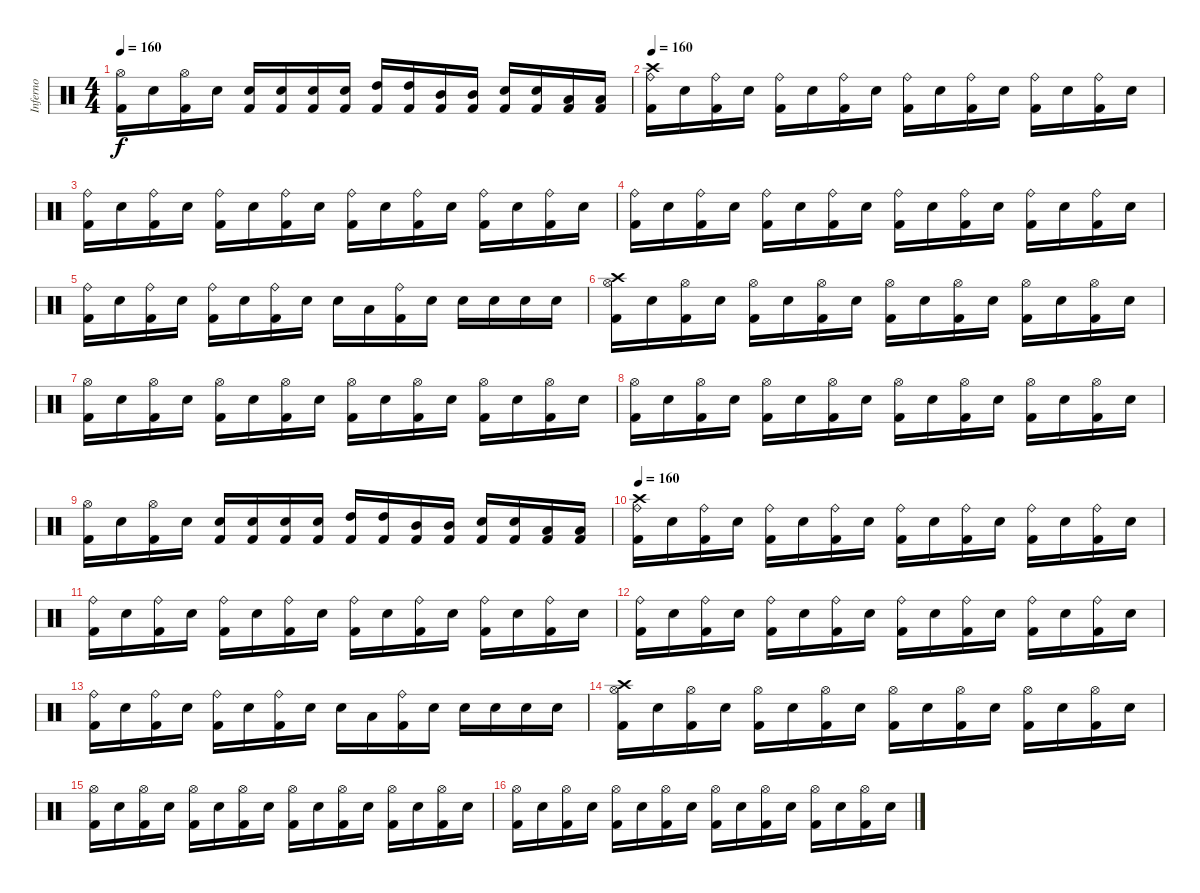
\track ("Inferno" "Inferno") {instrument percussion}
\staff {score}
\articulation defaults
\ts (4 4)
\tempo 160
\clef neutral
\ks c
("Hi-Hat (open)" "Kick (hit) 2").16{dy f} "Electric Snare (hit)".16 ("Hi-Hat (open)" "Kick (hit) 2").16 "Electric Snare (hit)".16 ("Electric Snare (hit)" "Kick (hit) 2").16 ("Electric Snare (hit)" "Kick (hit) 2").16 ("Electric Snare (hit)" "Kick (hit) 2").16 ("Electric Snare (hit)" "Kick (hit) 2").16 ("High Tom (hit)" "Kick (hit) 2").16 ("High Tom (hit)" "Kick (hit) 2").16 ("Mid Tom (hit)" "Kick (hit) 2").16 ("Mid Tom (hit)" "Kick (hit) 2").16 ("Electric Snare (hit)" "Kick (hit) 2").16 ("Electric Snare (hit)" "Kick (hit) 2").16 ("Low Tom (hit)" "Kick (hit) 2").16 ("Low Tom (hit)" "Kick (hit) 2").16 |
\tempo 160
("Crash high (hit)" "Ride (bell)" "Kick (hit) 2").16 "Electric Snare (hit)".16 ("Ride (bell)" "Kick (hit) 2").16 "Electric Snare (hit)".16 ("Ride (bell)" "Kick (hit) 2").16 "Electric Snare (hit)".16 ("Ride (bell)" "Kick (hit) 2").16 "Electric Snare (hit)".16 ("Ride (bell)" "Kick (hit) 2").16 "Electric Snare (hit)".16 ("Ride (bell)" "Kick (hit) 2").16 "Electric Snare (hit)".16 ("Ride (bell)" "Kick (hit) 2").16 "Electric Snare (hit)".16 ("Ride (bell)" "Kick (hit) 2").16 "Electric Snare (hit)".16 |
("Ride (bell)" "Kick (hit) 2").16 "Electric Snare (hit)".16 ("Ride (bell)" "Kick (hit) 2").16 "Electric Snare (hit)".16 ("Ride (bell)" "Kick (hit) 2").16 "Electric Snare (hit)".16 ("Ride (bell)" "Kick (hit) 2").16 "Electric Snare (hit)".16 ("Ride (bell)" "Kick (hit) 2").16 "Electric Snare (hit)".16 ("Ride (bell)" "Kick (hit) 2").16 "Electric Snare (hit)".16 ("Ride (bell)" "Kick (hit) 2").16 "Electric Snare (hit)".16 ("Ride (bell)" "Kick (hit) 2").16 "Electric Snare (hit)".16 |
("Ride (bell)" "Kick (hit) 2").16 "Electric Snare (hit)".16 ("Ride (bell)" "Kick (hit) 2").16 "Electric Snare (hit)".16 ("Ride (bell)" "Kick (hit) 2").16 "Electric Snare (hit)".16 ("Ride (bell)" "Kick (hit) 2").16 "Electric Snare (hit)".16 ("Ride (bell)" "Kick (hit) 2").16 "Electric Snare (hit)".16 ("Ride (bell)" "Kick (hit) 2").16 "Electric Snare (hit)".16 ("Ride (bell)" "Kick (hit) 2").16 "Electric Snare (hit)".16 ("Ride (bell)" "Kick (hit) 2").16 "Electric Snare (hit)".16 |
("Ride (bell)" "Kick (hit) 2").16 "Electric Snare (hit)".16 ("Ride (bell)" "Kick (hit) 2").16 "Electric Snare (hit)".16 ("Ride (bell)" "Kick (hit) 2").16 "Electric Snare (hit)".16 ("Ride (bell)" "Kick (hit) 2").16 "Electric Snare (hit)".16 "Electric Snare (hit)".16 "Low Tom (hit)".16 ("Ride (bell)" "Kick (hit) 2").16 "Electric Snare (hit)".16 "Electric Snare (hit)".16 "Electric Snare (hit)".16 "Electric Snare (hit)".16 "Electric Snare (hit)".16 |
("Crash high (hit)" "Hi-Hat (open)" "Kick (hit) 2").16 "Electric Snare (hit)".16 ("Hi-Hat (open)" "Kick (hit) 2").16 "Electric Snare (hit)".16 ("Hi-Hat (open)" "Kick (hit) 2").16 "Electric Snare (hit)".16 ("Hi-Hat (open)" "Kick (hit) 2").16 "Electric Snare (hit)".16 ("Hi-Hat (open)" "Kick (hit) 2").16 "Electric Snare (hit)".16 ("Hi-Hat (open)" "Kick (hit) 2").16 "Electric Snare (hit)".16 ("Hi-Hat (open)" "Kick (hit) 2").16 "Electric Snare (hit)".16 ("Hi-Hat (open)" "Kick (hit) 2").16 "Electric Snare (hit)".16 |
("Hi-Hat (open)" "Kick (hit) 2").16 "Electric Snare (hit)".16 ("Hi-Hat (open)" "Kick (hit) 2").16 "Electric Snare (hit)".16 ("Hi-Hat (open)" "Kick (hit) 2").16 "Electric Snare (hit)".16 ("Hi-Hat (open)" "Kick (hit) 2").16 "Electric Snare (hit)".16 ("Hi-Hat (open)" "Kick (hit) 2").16 "Electric Snare (hit)".16 ("Hi-Hat (open)" "Kick (hit) 2").16 "Electric Snare (hit)".16 ("Hi-Hat (open)" "Kick (hit) 2").16 "Electric Snare (hit)".16 ("Hi-Hat (open)" "Kick (hit) 2").16 "Electric Snare (hit)".16 |
("Hi-Hat (open)" "Kick (hit) 2").16 "Electric Snare (hit)".16 ("Hi-Hat (open)" "Kick (hit) 2").16 "Electric Snare (hit)".16 ("Hi-Hat (open)" "Kick (hit) 2").16 "Electric Snare (hit)".16 ("Hi-Hat (open)" "Kick (hit) 2").16 "Electric Snare (hit)".16 ("Hi-Hat (open)" "Kick (hit) 2").16 "Electric Snare (hit)".16 ("Hi-Hat (open)" "Kick (hit) 2").16 "Electric Snare (hit)".16 ("Hi-Hat (open)" "Kick (hit) 2").16 "Electric Snare (hit)".16 ("Hi-Hat (open)" "Kick (hit) 2").16 "Electric Snare (hit)".16 |
("Hi-Hat (open)" "Kick (hit) 2").16 "Electric Snare (hit)".16 ("Hi-Hat (open)" "Kick (hit) 2").16 "Electric Snare (hit)".16 ("Electric Snare (hit)" "Kick (hit) 2").16 ("Electric Snare (hit)" "Kick (hit) 2").16 ("Electric Snare (hit)" "Kick (hit) 2").16 ("Electric Snare (hit)" "Kick (hit) 2").16 ("High Tom (hit)" "Kick (hit) 2").16 ("High Tom (hit)" "Kick (hit) 2").16 ("Mid Tom (hit)" "Kick (hit) 2").16 ("Mid Tom (hit)" "Kick (hit) 2").16 ("Electric Snare (hit)" "Kick (hit) 2").16 ("Electric Snare (hit)" "Kick (hit) 2").16 ("Low Tom (hit)" "Kick (hit) 2").16 ("Low Tom (hit)" "Kick (hit) 2").16 |
\tempo 160
("Crash high (hit)" "Ride (bell)" "Kick (hit) 2").16 "Electric Snare (hit)".16 ("Ride (bell)" "Kick (hit) 2").16 "Electric Snare (hit)".16 ("Ride (bell)" "Kick (hit) 2").16 "Electric Snare (hit)".16 ("Ride (bell)" "Kick (hit) 2").16 "Electric Snare (hit)".16 ("Ride (bell)" "Kick (hit) 2").16 "Electric Snare (hit)".16 ("Ride (bell)" "Kick (hit) 2").16 "Electric Snare (hit)".16 ("Ride (bell)" "Kick (hit) 2").16 "Electric Snare (hit)".16 ("Ride (bell)" "Kick (hit) 2").16 "Electric Snare (hit)".16 |
("Ride (bell)" "Kick (hit) 2").16 "Electric Snare (hit)".16 ("Ride (bell)" "Kick (hit) 2").16 "Electric Snare (hit)".16 ("Ride (bell)" "Kick (hit) 2").16 "Electric Snare (hit)".16 ("Ride (bell)" "Kick (hit) 2").16 "Electric Snare (hit)".16 ("Ride (bell)" "Kick (hit) 2").16 "Electric Snare (hit)".16 ("Ride (bell)" "Kick (hit) 2").16 "Electric Snare (hit)".16 ("Ride (bell)" "Kick (hit) 2").16 "Electric Snare (hit)".16 ("Ride (bell)" "Kick (hit) 2").16 "Electric Snare (hit)".16 |
("Ride (bell)" "Kick (hit) 2").16 "Electric Snare (hit)".16 ("Ride (bell)" "Kick (hit) 2").16 "Electric Snare (hit)".16 ("Ride (bell)" "Kick (hit) 2").16 "Electric Snare (hit)".16 ("Ride (bell)" "Kick (hit) 2").16 "Electric Snare (hit)".16 ("Ride (bell)" "Kick (hit) 2").16 "Electric Snare (hit)".16 ("Ride (bell)" "Kick (hit) 2").16 "Electric Snare (hit)".16 ("Ride (bell)" "Kick (hit) 2").16 "Electric Snare (hit)".16 ("Ride (bell)" "Kick (hit) 2").16 "Electric Snare (hit)".16 |
("Ride (bell)" "Kick (hit) 2").16 "Electric Snare (hit)".16 ("Ride (bell)" "Kick (hit) 2").16 "Electric Snare (hit)".16 ("Ride (bell)" "Kick (hit) 2").16 "Electric Snare (hit)".16 ("Ride (bell)" "Kick (hit) 2").16 "Electric Snare (hit)".16 "Electric Snare (hit)".16 "Low Tom (hit)".16 ("Ride (bell)" "Kick (hit) 2").16 "Electric Snare (hit)".16 "Electric Snare (hit)".16 "Electric Snare (hit)".16 "Electric Snare (hit)".16 "Electric Snare (hit)".16 |
("Crash high (hit)" "Hi-Hat (open)" "Kick (hit) 2").16 "Electric Snare (hit)".16 ("Hi-Hat (open)" "Kick (hit) 2").16 "Electric Snare (hit)".16 ("Hi-Hat (open)" "Kick (hit) 2").16 "Electric Snare (hit)".16 ("Hi-Hat (open)" "Kick (hit) 2").16 "Electric Snare (hit)".16 ("Hi-Hat (open)" "Kick (hit) 2").16 "Electric Snare (hit)".16 ("Hi-Hat (open)" "Kick (hit) 2").16 "Electric Snare (hit)".16 ("Hi-Hat (open)" "Kick (hit) 2").16 "Electric Snare (hit)".16 ("Hi-Hat (open)" "Kick (hit) 2").16 "Electric Snare (hit)".16 |
("Hi-Hat (open)" "Kick (hit) 2").16 "Electric Snare (hit)".16 ("Hi-Hat (open)" "Kick (hit) 2").16 "Electric Snare (hit)".16 ("Hi-Hat (open)" "Kick (hit) 2").16 "Electric Snare (hit)".16 ("Hi-Hat (open)" "Kick (hit) 2").16 "Electric Snare (hit)".16 ("Hi-Hat (open)" "Kick (hit) 2").16 "Electric Snare (hit)".16 ("Hi-Hat (open)" "Kick (hit) 2").16 "Electric Snare (hit)".16 ("Hi-Hat (open)" "Kick (hit) 2").16 "Electric Snare (hit)".16 ("Hi-Hat (open)" "Kick (hit) 2").16 "Electric Snare (hit)".16 |
("Hi-Hat (open)" "Kick (hit) 2").16 "Electric Snare (hit)".16 ("Hi-Hat (open)" "Kick (hit) 2").16 "Electric Snare (hit)".16 ("Hi-Hat (open)" "Kick (hit) 2").16 "Electric Snare (hit)".16 ("Hi-Hat (open)" "Kick (hit) 2").16 "Electric Snare (hit)".16 ("Hi-Hat (open)" "Kick (hit) 2").16 "Electric Snare (hit)".16 ("Hi-Hat (open)" "Kick (hit) 2").16 "Electric Snare (hit)".16 ("Hi-Hat (open)" "Kick (hit) 2").16 "Electric Snare (hit)".16 ("Hi-Hat (open)" "Kick (hit) 2").16 "Electric Snare (hit)".16
